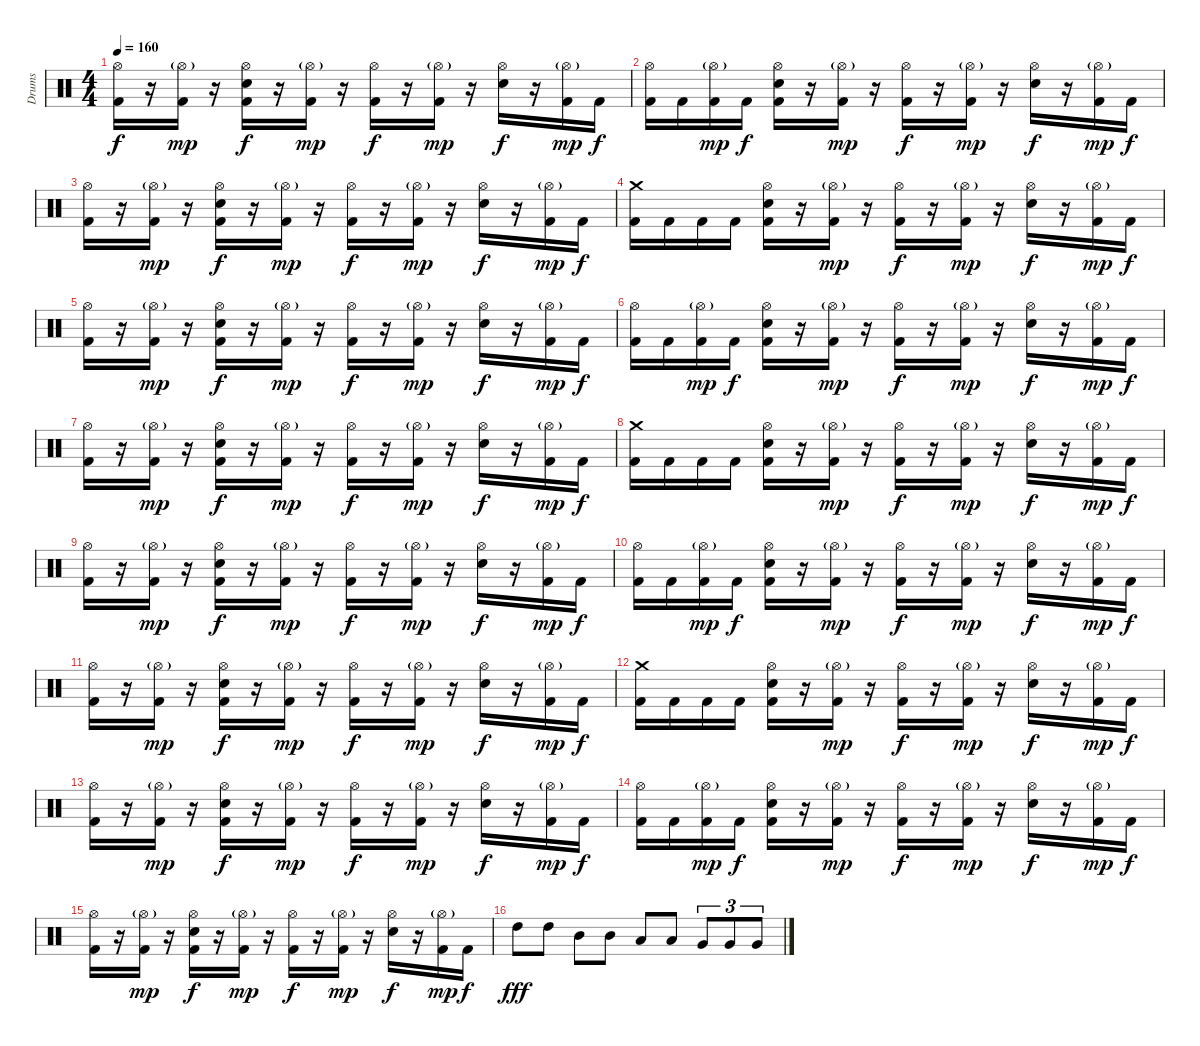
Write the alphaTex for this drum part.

\track ("Drums" "Drums") {instrument percussion}
\staff {score}
\articulation defaults
\ts (4 4)
\tempo 160
\clef neutral
\ks c
("Kick (hit) 2" "Hi-Hat (open)").16{dy f} r.16 ("Kick (hit) 2" "Hi-Hat (open)"{g}).16{dy mp} r.16 ("Kick (hit) 2" "Hi-Hat (open)" "Electric Snare (hit)").16{dy f} r.16 ("Kick (hit) 2" "Hi-Hat (open)"{g}).16{dy mp} r.16 ("Kick (hit) 2" "Hi-Hat (open)").16{dy f} r.16 ("Kick (hit) 2" "Hi-Hat (open)"{g}).16{dy mp} r.16 ("Electric Snare (hit)" "Hi-Hat (open)").16{dy f} r.16 ("Kick (hit) 2" "Hi-Hat (open)"{g}).16{dy mp} "Kick (hit) 2".16{dy f} |
("Kick (hit) 2" "Hi-Hat (open)").16 "Kick (hit) 2".16 ("Kick (hit) 2" "Hi-Hat (open)"{g}).16{dy mp} "Kick (hit) 2".16{dy f} ("Kick (hit) 2" "Hi-Hat (open)" "Electric Snare (hit)").16 r.16 ("Kick (hit) 2" "Hi-Hat (open)"{g}).16{dy mp} r.16 ("Kick (hit) 2" "Hi-Hat (open)").16{dy f} r.16 ("Kick (hit) 2" "Hi-Hat (open)"{g}).16{dy mp} r.16 ("Electric Snare (hit)" "Hi-Hat (open)").16{dy f} r.16 ("Kick (hit) 2" "Hi-Hat (open)"{g}).16{dy mp} "Kick (hit) 2".16{dy f} |
("Kick (hit) 2" "Hi-Hat (open)").16 r.16 ("Kick (hit) 2" "Hi-Hat (open)"{g}).16{dy mp} r.16 ("Kick (hit) 2" "Hi-Hat (open)" "Electric Snare (hit)").16{dy f} r.16 ("Kick (hit) 2" "Hi-Hat (open)"{g}).16{dy mp} r.16 ("Kick (hit) 2" "Hi-Hat (open)").16{dy f} r.16 ("Kick (hit) 2" "Hi-Hat (open)"{g}).16{dy mp} r.16 ("Electric Snare (hit)" "Hi-Hat (open)").16{dy f} r.16 ("Kick (hit) 2" "Hi-Hat (open)"{g}).16{dy mp} "Kick (hit) 2".16{dy f} |
("Kick (hit) 2" "Crash medium (hit)").16 "Kick (hit) 2".16 "Kick (hit) 2".16 "Kick (hit) 2".16 ("Kick (hit) 2" "Hi-Hat (open)" "Electric Snare (hit)").16 r.16 ("Kick (hit) 2" "Hi-Hat (open)"{g}).16{dy mp} r.16 ("Kick (hit) 2" "Hi-Hat (open)").16{dy f} r.16 ("Kick (hit) 2" "Hi-Hat (open)"{g}).16{dy mp} r.16 ("Electric Snare (hit)" "Hi-Hat (open)").16{dy f} r.16 ("Kick (hit) 2" "Hi-Hat (open)"{g}).16{dy mp} "Kick (hit) 2".16{dy f} |
("Kick (hit) 2" "Hi-Hat (open)").16 r.16 ("Kick (hit) 2" "Hi-Hat (open)"{g}).16{dy mp} r.16 ("Kick (hit) 2" "Hi-Hat (open)" "Electric Snare (hit)").16{dy f} r.16 ("Kick (hit) 2" "Hi-Hat (open)"{g}).16{dy mp} r.16 ("Kick (hit) 2" "Hi-Hat (open)").16{dy f} r.16 ("Kick (hit) 2" "Hi-Hat (open)"{g}).16{dy mp} r.16 ("Electric Snare (hit)" "Hi-Hat (open)").16{dy f} r.16 ("Kick (hit) 2" "Hi-Hat (open)"{g}).16{dy mp} "Kick (hit) 2".16{dy f} |
("Kick (hit) 2" "Hi-Hat (open)").16 "Kick (hit) 2".16 ("Kick (hit) 2" "Hi-Hat (open)"{g}).16{dy mp} "Kick (hit) 2".16{dy f} ("Kick (hit) 2" "Hi-Hat (open)" "Electric Snare (hit)").16 r.16 ("Kick (hit) 2" "Hi-Hat (open)"{g}).16{dy mp} r.16 ("Kick (hit) 2" "Hi-Hat (open)").16{dy f} r.16 ("Kick (hit) 2" "Hi-Hat (open)"{g}).16{dy mp} r.16 ("Electric Snare (hit)" "Hi-Hat (open)").16{dy f} r.16 ("Kick (hit) 2" "Hi-Hat (open)"{g}).16{dy mp} "Kick (hit) 2".16{dy f} |
("Kick (hit) 2" "Hi-Hat (open)").16 r.16 ("Kick (hit) 2" "Hi-Hat (open)"{g}).16{dy mp} r.16 ("Kick (hit) 2" "Hi-Hat (open)" "Electric Snare (hit)").16{dy f} r.16 ("Kick (hit) 2" "Hi-Hat (open)"{g}).16{dy mp} r.16 ("Kick (hit) 2" "Hi-Hat (open)").16{dy f} r.16 ("Kick (hit) 2" "Hi-Hat (open)"{g}).16{dy mp} r.16 ("Electric Snare (hit)" "Hi-Hat (open)").16{dy f} r.16 ("Kick (hit) 2" "Hi-Hat (open)"{g}).16{dy mp} "Kick (hit) 2".16{dy f} |
("Kick (hit) 2" "Crash medium (hit)").16 "Kick (hit) 2".16 "Kick (hit) 2".16 "Kick (hit) 2".16 ("Kick (hit) 2" "Hi-Hat (open)" "Electric Snare (hit)").16 r.16 ("Kick (hit) 2" "Hi-Hat (open)"{g}).16{dy mp} r.16 ("Kick (hit) 2" "Hi-Hat (open)").16{dy f} r.16 ("Kick (hit) 2" "Hi-Hat (open)"{g}).16{dy mp} r.16 ("Electric Snare (hit)" "Hi-Hat (open)").16{dy f} r.16 ("Kick (hit) 2" "Hi-Hat (open)"{g}).16{dy mp} "Kick (hit) 2".16{dy f} |
("Kick (hit) 2" "Hi-Hat (open)").16 r.16 ("Kick (hit) 2" "Hi-Hat (open)"{g}).16{dy mp} r.16 ("Kick (hit) 2" "Hi-Hat (open)" "Electric Snare (hit)").16{dy f} r.16 ("Kick (hit) 2" "Hi-Hat (open)"{g}).16{dy mp} r.16 ("Kick (hit) 2" "Hi-Hat (open)").16{dy f} r.16 ("Kick (hit) 2" "Hi-Hat (open)"{g}).16{dy mp} r.16 ("Electric Snare (hit)" "Hi-Hat (open)").16{dy f} r.16 ("Kick (hit) 2" "Hi-Hat (open)"{g}).16{dy mp} "Kick (hit) 2".16{dy f} |
("Kick (hit) 2" "Hi-Hat (open)").16 "Kick (hit) 2".16 ("Kick (hit) 2" "Hi-Hat (open)"{g}).16{dy mp} "Kick (hit) 2".16{dy f} ("Kick (hit) 2" "Hi-Hat (open)" "Electric Snare (hit)").16 r.16 ("Kick (hit) 2" "Hi-Hat (open)"{g}).16{dy mp} r.16 ("Kick (hit) 2" "Hi-Hat (open)").16{dy f} r.16 ("Kick (hit) 2" "Hi-Hat (open)"{g}).16{dy mp} r.16 ("Electric Snare (hit)" "Hi-Hat (open)").16{dy f} r.16 ("Kick (hit) 2" "Hi-Hat (open)"{g}).16{dy mp} "Kick (hit) 2".16{dy f} |
("Kick (hit) 2" "Hi-Hat (open)").16 r.16 ("Kick (hit) 2" "Hi-Hat (open)"{g}).16{dy mp} r.16 ("Kick (hit) 2" "Hi-Hat (open)" "Electric Snare (hit)").16{dy f} r.16 ("Kick (hit) 2" "Hi-Hat (open)"{g}).16{dy mp} r.16 ("Kick (hit) 2" "Hi-Hat (open)").16{dy f} r.16 ("Kick (hit) 2" "Hi-Hat (open)"{g}).16{dy mp} r.16 ("Electric Snare (hit)" "Hi-Hat (open)").16{dy f} r.16 ("Kick (hit) 2" "Hi-Hat (open)"{g}).16{dy mp} "Kick (hit) 2".16{dy f} |
("Kick (hit) 2" "Crash medium (hit)").16 "Kick (hit) 2".16 "Kick (hit) 2".16 "Kick (hit) 2".16 ("Kick (hit) 2" "Hi-Hat (open)" "Electric Snare (hit)").16 r.16 ("Kick (hit) 2" "Hi-Hat (open)"{g}).16{dy mp} r.16 ("Kick (hit) 2" "Hi-Hat (open)").16{dy f} r.16 ("Kick (hit) 2" "Hi-Hat (open)"{g}).16{dy mp} r.16 ("Electric Snare (hit)" "Hi-Hat (open)").16{dy f} r.16 ("Kick (hit) 2" "Hi-Hat (open)"{g}).16{dy mp} "Kick (hit) 2".16{dy f} |
("Kick (hit) 2" "Hi-Hat (open)").16 r.16 ("Kick (hit) 2" "Hi-Hat (open)"{g}).16{dy mp} r.16 ("Kick (hit) 2" "Hi-Hat (open)" "Electric Snare (hit)").16{dy f} r.16 ("Kick (hit) 2" "Hi-Hat (open)"{g}).16{dy mp} r.16 ("Kick (hit) 2" "Hi-Hat (open)").16{dy f} r.16 ("Kick (hit) 2" "Hi-Hat (open)"{g}).16{dy mp} r.16 ("Electric Snare (hit)" "Hi-Hat (open)").16{dy f} r.16 ("Kick (hit) 2" "Hi-Hat (open)"{g}).16{dy mp} "Kick (hit) 2".16{dy f} |
("Kick (hit) 2" "Hi-Hat (open)").16 "Kick (hit) 2".16 ("Kick (hit) 2" "Hi-Hat (open)"{g}).16{dy mp} "Kick (hit) 2".16{dy f} ("Kick (hit) 2" "Hi-Hat (open)" "Electric Snare (hit)").16 r.16 ("Kick (hit) 2" "Hi-Hat (open)"{g}).16{dy mp} r.16 ("Kick (hit) 2" "Hi-Hat (open)").16{dy f} r.16 ("Kick (hit) 2" "Hi-Hat (open)"{g}).16{dy mp} r.16 ("Electric Snare (hit)" "Hi-Hat (open)").16{dy f} r.16 ("Kick (hit) 2" "Hi-Hat (open)"{g}).16{dy mp} "Kick (hit) 2".16{dy f} |
("Kick (hit) 2" "Hi-Hat (open)").16 r.16 ("Kick (hit) 2" "Hi-Hat (open)"{g}).16{dy mp} r.16 ("Kick (hit) 2" "Hi-Hat (open)" "Electric Snare (hit)").16{dy f} r.16 ("Kick (hit) 2" "Hi-Hat (open)"{g}).16{dy mp} r.16 ("Kick (hit) 2" "Hi-Hat (open)").16{dy f} r.16 ("Kick (hit) 2" "Hi-Hat (open)"{g}).16{dy mp} r.16 ("Electric Snare (hit)" "Hi-Hat (open)").16{dy f} r.16 ("Kick (hit) 2" "Hi-Hat (open)"{g}).16{dy mp} "Kick (hit) 2".16{dy f} |
"High Tom (hit)".8{dy fff} "High Tom (hit)".8 "Mid Tom (hit)".8 "Mid Tom (hit)".8 "Low Tom (hit)".8 "Low Tom (hit)".8 "Very Low Tom (hit)".8{tu (3 2)} "Very Low Tom (hit)".8{tu (3 2)} "Very Low Tom (hit)".8{tu (3 2)}
